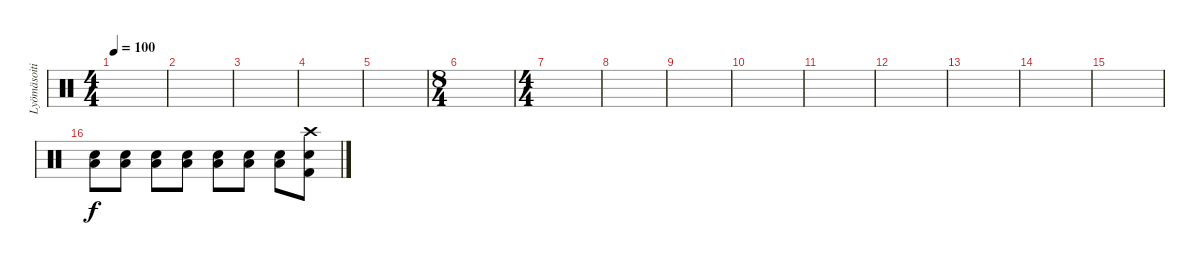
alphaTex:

\track ("Lyömäsoitin" "Lyömäsoiti") {instrument percussion}
\staff {score}
\articulation defaults
\ts (4 4)
\tempo 100
\clef neutral
\ks c
|
|
|
|
|
\ts (8 4)
|
\ts (4 4)
|
|
|
|
|
|
|
|
|
("Snare (hit) 2" "Low Tom (hit)").8 ("Snare (hit) 2" "Low Tom (hit)").8 ("Snare (hit) 2" "Low Tom (hit)").8 ("Snare (hit) 2" "Low Tom (hit)").8 ("Snare (hit) 2" "Low Tom (hit)").8 ("Snare (hit) 2" "Low Tom (hit)").8 ("Snare (hit) 2" "Low Tom (hit)").8 ("Snare (hit) 2" "Kick (hit) 2" "Crash high (hit)").8
